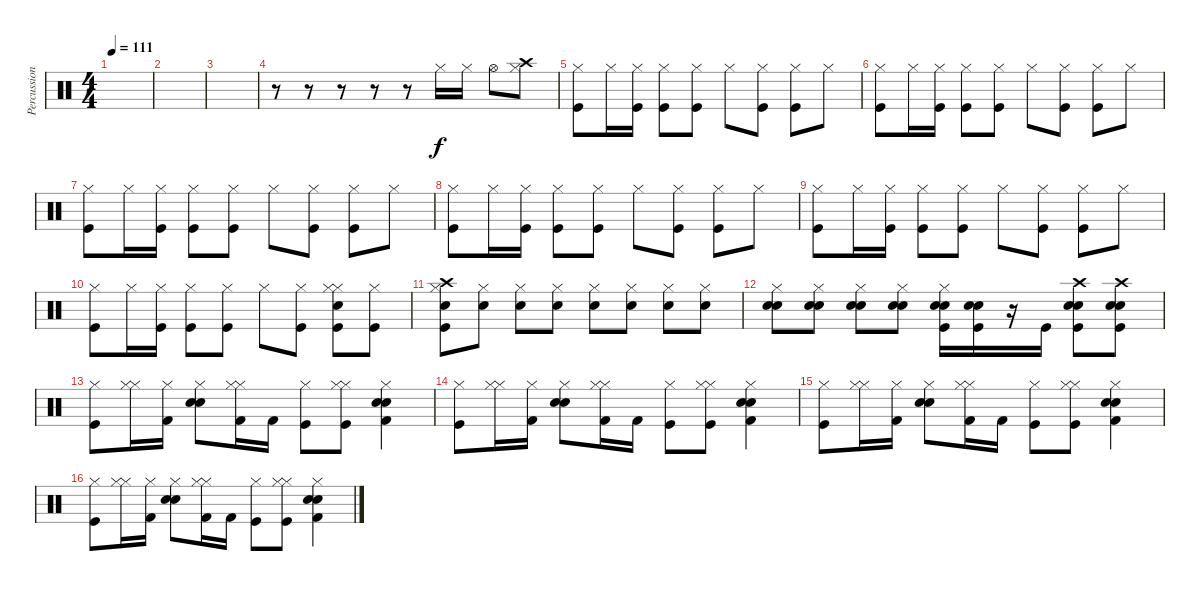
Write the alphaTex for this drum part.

\track ("Percussion" "Percussion") {instrument percussion}
\staff {score}
\articulation defaults
\ts (4 4)
\tempo 111
\clef neutral
\ks c
|
|
|
r.8 r.8 r.8 r.8 r.8 "Hi-Hat (closed)".16 "Hi-Hat (closed)".16 "Hi-Hat (open)".8 ("Crash high (hit)" "Hi-Hat (closed)").8 |
("Hi-Hat (closed)" "Kick (hit)").8 "Hi-Hat (closed)".16 ("Hi-Hat (closed)" "Kick (hit)").16 ("Hi-Hat (closed)" "Kick (hit)").8 ("Hi-Hat (closed)" "Kick (hit)").8 "Hi-Hat (closed)".8 ("Hi-Hat (closed)" "Kick (hit)").8 ("Hi-Hat (closed)" "Kick (hit)").8 "Hi-Hat (closed)".8 |
("Hi-Hat (closed)" "Kick (hit)").8 "Hi-Hat (closed)".16 ("Hi-Hat (closed)" "Kick (hit)").16 ("Hi-Hat (closed)" "Kick (hit)").8 ("Hi-Hat (closed)" "Kick (hit)").8 "Hi-Hat (closed)".8 ("Hi-Hat (closed)" "Kick (hit)").8 ("Hi-Hat (closed)" "Kick (hit)").8 "Hi-Hat (closed)".8 |
("Hi-Hat (closed)" "Kick (hit)").8 "Hi-Hat (closed)".16 ("Hi-Hat (closed)" "Kick (hit)").16 ("Hi-Hat (closed)" "Kick (hit)").8 ("Hi-Hat (closed)" "Kick (hit)").8 "Hi-Hat (closed)".8 ("Hi-Hat (closed)" "Kick (hit)").8 ("Hi-Hat (closed)" "Kick (hit)").8 "Hi-Hat (closed)".8 |
("Hi-Hat (closed)" "Kick (hit)").8 "Hi-Hat (closed)".16 ("Hi-Hat (closed)" "Kick (hit)").16 ("Hi-Hat (closed)" "Kick (hit)").8 ("Hi-Hat (closed)" "Kick (hit)").8 "Hi-Hat (closed)".8 ("Hi-Hat (closed)" "Kick (hit)").8 ("Hi-Hat (closed)" "Kick (hit)").8 "Hi-Hat (closed)".8 |
("Hi-Hat (closed)" "Kick (hit)").8 "Hi-Hat (closed)".16 ("Hi-Hat (closed)" "Kick (hit)").16 ("Hi-Hat (closed)" "Kick (hit)").8 ("Hi-Hat (closed)" "Kick (hit)").8 "Hi-Hat (closed)".8 ("Hi-Hat (closed)" "Kick (hit)").8 ("Hi-Hat (closed)" "Kick (hit)").8 "Hi-Hat (closed)".8 |
("Hi-Hat (closed)" "Kick (hit)").8 "Hi-Hat (closed)".16 ("Hi-Hat (closed)" "Kick (hit)").16 ("Hi-Hat (closed)" "Kick (hit)").8 ("Hi-Hat (closed)" "Kick (hit)").8 "Hi-Hat (closed)".8 ("Hi-Hat (closed)" "Kick (hit)").8 ("Hi-Hat (closed)" "Hi-Hat (closed)" "Electric Snare (hit)" "Kick (hit)").8 ("Hi-Hat (closed)" "Kick (hit)").8 |
("Crash high (hit)" "Hi-Hat (closed)" "Electric Snare (hit)" "Kick (hit)").8 ("Hi-Hat (closed)" "Electric Snare (hit)").8 ("Hi-Hat (closed)" "Electric Snare (hit)").8 ("Hi-Hat (closed)" "Electric Snare (hit)").8 ("Hi-Hat (closed)" "Electric Snare (hit)").8 ("Hi-Hat (closed)" "Electric Snare (hit)").8 ("Hi-Hat (closed)" "Electric Snare (hit)").8 ("Hi-Hat (closed)" "Electric Snare (hit)").8 |
("Hi-Hat (closed)" "Electric Snare (hit)" "Snare (hit) 2").8 ("Hi-Hat (closed)" "Electric Snare (hit)" "Snare (hit) 2").8 ("Hi-Hat (closed)" "Electric Snare (hit)" "Snare (hit) 2").8 ("Hi-Hat (closed)" "Electric Snare (hit)" "Snare (hit) 2").8 ("Hi-Hat (closed)" "Electric Snare (hit)" "Snare (hit) 2" "Kick (hit)").16 ("Electric Snare (hit)" "Snare (hit) 2" "Kick (hit)").16 r.16 "Kick (hit)".16 ("Crash high (hit)" "Electric Snare (hit)" "Snare (hit) 2" "Kick (hit)").8 ("Crash high (hit)" "Electric Snare (hit)" "Snare (hit) 2" "Kick (hit)").8 |
("Hi-Hat (closed)" "Kick (hit)").8 ("Hi-Hat (closed)" "Hi-Hat (closed)").16 ("Hi-Hat (closed)" "Kick (hit) 2").16 ("Hi-Hat (closed)" "Snare (hit) 2" "Electric Snare (hit)").8 ("Hi-Hat (closed)" "Hi-Hat (closed)" "Kick (hit) 2").16 "Kick (hit) 2".16 ("Hi-Hat (closed)" "Kick (hit)").8 ("Hi-Hat (closed)" "Hi-Hat (closed)" "Kick (hit)").8 ("Hi-Hat (closed)" "Snare (hit) 2" "Electric Snare (hit)" "Kick (hit) 2").4 |
("Hi-Hat (closed)" "Kick (hit)").8 ("Hi-Hat (closed)" "Hi-Hat (closed)").16 ("Hi-Hat (closed)" "Kick (hit) 2").16 ("Hi-Hat (closed)" "Snare (hit) 2" "Electric Snare (hit)").8 ("Hi-Hat (closed)" "Hi-Hat (closed)" "Kick (hit) 2").16 "Kick (hit) 2".16 ("Hi-Hat (closed)" "Kick (hit)").8 ("Hi-Hat (closed)" "Hi-Hat (closed)" "Kick (hit)").8 ("Hi-Hat (closed)" "Snare (hit) 2" "Electric Snare (hit)" "Kick (hit) 2").4 |
("Hi-Hat (closed)" "Kick (hit)").8 ("Hi-Hat (closed)" "Hi-Hat (closed)").16 ("Hi-Hat (closed)" "Kick (hit) 2").16 ("Hi-Hat (closed)" "Snare (hit) 2" "Electric Snare (hit)").8 ("Hi-Hat (closed)" "Hi-Hat (closed)" "Kick (hit) 2").16 "Kick (hit) 2".16 ("Hi-Hat (closed)" "Kick (hit)").8 ("Hi-Hat (closed)" "Hi-Hat (closed)" "Kick (hit)").8 ("Hi-Hat (closed)" "Snare (hit) 2" "Electric Snare (hit)" "Kick (hit) 2").4 |
("Hi-Hat (closed)" "Kick (hit)").8 ("Hi-Hat (closed)" "Hi-Hat (closed)").16 ("Hi-Hat (closed)" "Kick (hit) 2").16 ("Hi-Hat (closed)" "Snare (hit) 2" "Electric Snare (hit)").8 ("Hi-Hat (closed)" "Hi-Hat (closed)" "Kick (hit) 2").16 "Kick (hit) 2".16 ("Hi-Hat (closed)" "Kick (hit)").8 ("Hi-Hat (closed)" "Hi-Hat (closed)" "Kick (hit)").8 ("Hi-Hat (closed)" "Snare (hit) 2" "Electric Snare (hit)" "Kick (hit) 2").4
